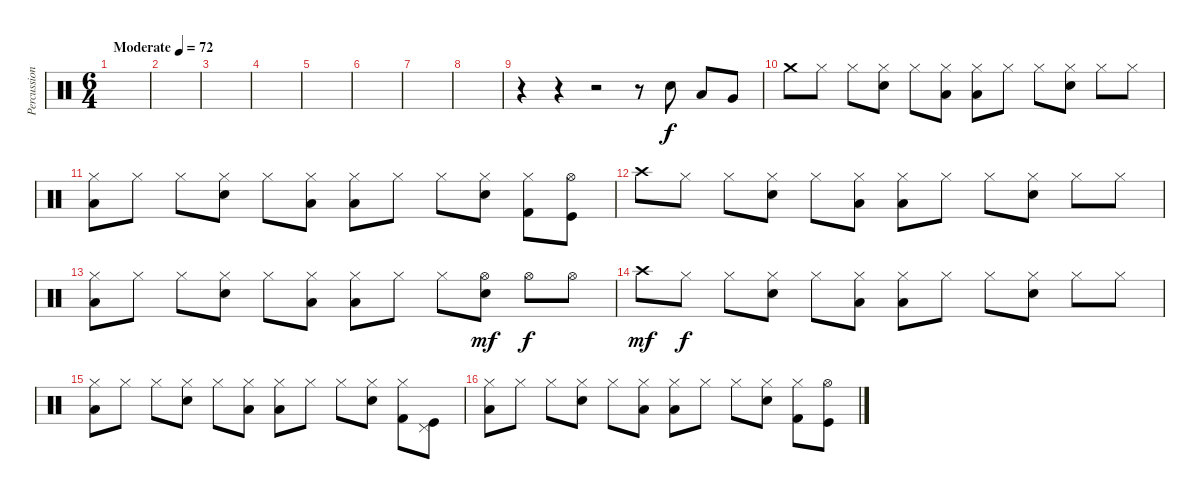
\track ("Percussion" "Percussion") {instrument percussion}
\staff {score}
\articulation defaults
\ts (6 4)
\section ("" "")
\tempo (72 "Moderate")
\clef neutral
\ks c
|
|
|
|
|
|
|
|
r.4 r.4 r.2 r.8 "Snare (hit) 2".8 "Low Tom (hit)".8 "Very Low Tom (hit)".8 |
"Crash medium (hit)".8 "Hi-Hat (closed)".8 "Hi-Hat (closed)".8 ("Hi-Hat (closed)" "Snare (hit) 2").8 "Hi-Hat (closed)".8 ("Hi-Hat (closed)" "Low Floor Tom (hit)").8 ("Hi-Hat (closed)" "Low Floor Tom (hit)").8 "Hi-Hat (closed)".8 "Hi-Hat (closed)".8 ("Hi-Hat (closed)" "Snare (hit) 2").8 "Hi-Hat (closed)".8 "Hi-Hat (closed)".8 |
("Hi-Hat (closed)" "Low Floor Tom (hit)").8 "Hi-Hat (closed)".8 "Hi-Hat (closed)".8 ("Hi-Hat (closed)" "Snare (hit) 2").8 "Hi-Hat (closed)".8 ("Hi-Hat (closed)" "Low Floor Tom (hit)").8 ("Hi-Hat (closed)" "Low Floor Tom (hit)").8 "Hi-Hat (closed)".8 "Hi-Hat (closed)".8 ("Hi-Hat (closed)" "Snare (hit) 2").8 ("Hi-Hat (closed)" "Kick (hit) 2").8 ("Hi-Hat (open)" "Kick (hit)").8 |
"Crash high (hit)".8 "Hi-Hat (closed)".8 "Hi-Hat (closed)".8 ("Hi-Hat (closed)" "Snare (hit) 2").8 "Hi-Hat (closed)".8 ("Hi-Hat (closed)" "Low Floor Tom (hit)").8 ("Hi-Hat (closed)" "Low Floor Tom (hit)").8 "Hi-Hat (closed)".8 "Hi-Hat (closed)".8 ("Hi-Hat (closed)" "Snare (hit) 2").8 "Hi-Hat (closed)".8 "Hi-Hat (closed)".8 |
("Hi-Hat (closed)" "Low Floor Tom (hit)").8 "Hi-Hat (closed)".8 "Hi-Hat (closed)".8 ("Hi-Hat (closed)" "Snare (hit) 2").8 "Hi-Hat (closed)".8 ("Hi-Hat (closed)" "Low Floor Tom (hit)").8 ("Hi-Hat (closed)" "Low Floor Tom (hit)").8 "Hi-Hat (closed)".8 "Hi-Hat (closed)".8 ("Hi-Hat (open)" "Snare (hit) 2").8{dy mf} "Hi-Hat (open)".8{dy f} "Hi-Hat (open)".8 |
"Crash high (hit)".8{dy mf} "Hi-Hat (closed)".8{dy f} "Hi-Hat (closed)".8 ("Hi-Hat (closed)" "Snare (hit) 2").8 "Hi-Hat (closed)".8 ("Hi-Hat (closed)" "Low Floor Tom (hit)").8 ("Hi-Hat (closed)" "Low Floor Tom (hit)").8 "Hi-Hat (closed)".8 "Hi-Hat (closed)".8 ("Hi-Hat (closed)" "Snare (hit) 2").8 "Hi-Hat (closed)".8 "Hi-Hat (closed)".8 |
("Hi-Hat (closed)" "Low Floor Tom (hit)").8 "Hi-Hat (closed)".8 "Hi-Hat (closed)".8 ("Hi-Hat (closed)" "Snare (hit) 2").8 "Hi-Hat (closed)".8 ("Hi-Hat (closed)" "Low Floor Tom (hit)").8 ("Hi-Hat (closed)" "Low Floor Tom (hit)").8 "Hi-Hat (closed)".8 "Hi-Hat (closed)".8 ("Hi-Hat (closed)" "Snare (hit) 2").8 ("Hi-Hat (closed)" "Kick (hit) 2").8 ("Pedal Hi-Hat (hit)" "Kick (hit)").8 |
("Hi-Hat (closed)" "Low Floor Tom (hit)").8 "Hi-Hat (closed)".8 "Hi-Hat (closed)".8 ("Hi-Hat (closed)" "Snare (hit) 2").8 "Hi-Hat (closed)".8 ("Hi-Hat (closed)" "Low Floor Tom (hit)").8 ("Hi-Hat (closed)" "Low Floor Tom (hit)").8 "Hi-Hat (closed)".8 "Hi-Hat (closed)".8 ("Hi-Hat (closed)" "Snare (hit) 2").8 ("Hi-Hat (closed)" "Kick (hit) 2").8 ("Hi-Hat (open)" "Kick (hit)").8
